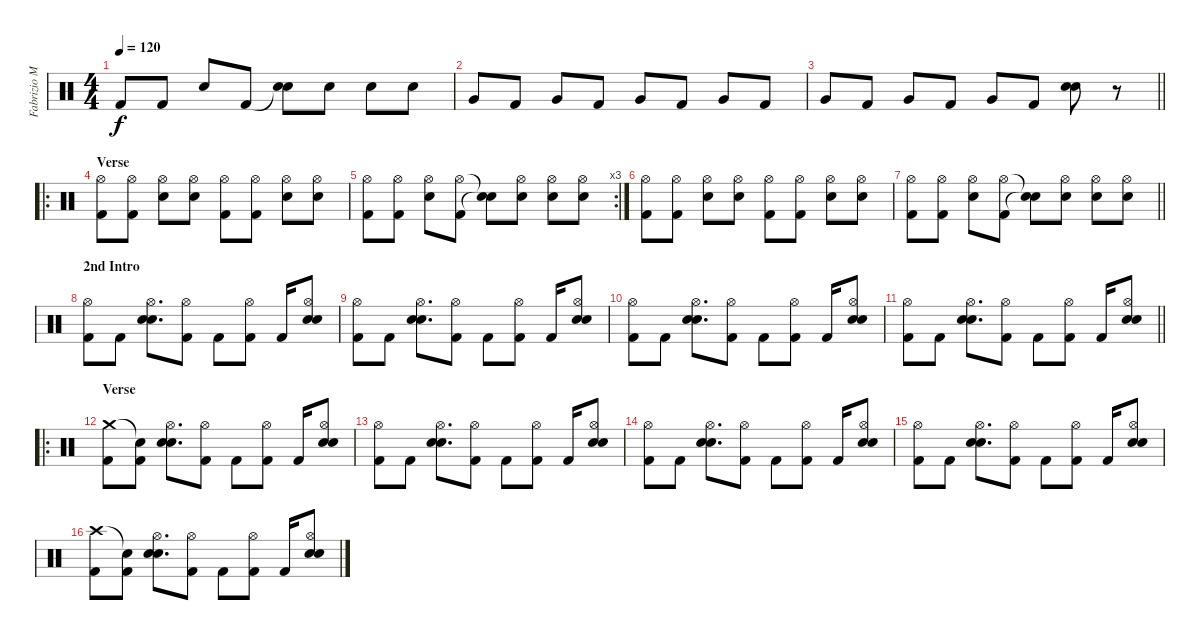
\track ("Fabrizio Moretti" "Fabrizio M") {instrument percussion}
\staff {score}
\articulation defaults
\ts (4 4)
\tempo 120
\clef neutral
\ks c "Kick (hit) 2".8{dy f} "Kick (hit) 2".8 "Electric Snare (hit)".8 "Kick (hit) 2".8
("Snare (hit)"{t} "Snare (hit)"{t}).8 "Electric Snare (hit)".8 "Electric Snare (hit)".8 "Electric Snare (hit)".8 |
"Very Low Tom (hit)".8 "Kick (hit) 2".8 "Very Low Tom (hit)".8 "Kick (hit) 2".8 "Very Low Tom (hit)".8 "Kick (hit) 2".8 "Very Low Tom (hit)".8 "Kick (hit) 2".8 |
\barLineRight lightlight "Very Low Tom (hit)".8 "Kick (hit) 2".8 "Very Low Tom (hit)".8 "Kick (hit) 2".8 "Very Low Tom (hit)".8 "Kick (hit) 2".8
("Electric Snare (hit)" "Electric Snare (hit)").8 r.8 |
\ro
\section ("" "Verse")
("Hi-Hat (open)" "Kick (hit) 2").8 ("Hi-Hat (open)" "Kick (hit) 2").8 ("Hi-Hat (open)" "Electric Snare (hit)").8 ("Hi-Hat (open)" "Electric Snare (hit)").8 ("Hi-Hat (open)" "Kick (hit) 2").8 ("Hi-Hat (open)" "Kick (hit) 2").8 ("Hi-Hat (open)" "Electric Snare (hit)").8 ("Hi-Hat (open)" "Electric Snare (hit)").8 |
\rc 3
("Hi-Hat (open)" "Kick (hit) 2").8 ("Hi-Hat (open)" "Kick (hit) 2").8 ("Hi-Hat (open)" "Electric Snare (hit)").8 ("Hi-Hat (open)" "Kick (hit) 2").8 ("Snare (hit)"{t} "Snare (hit)"{t}).8 ("Hi-Hat (open)" "Electric Snare (hit)").8 ("Hi-Hat (open)" "Electric Snare (hit)").8 ("Hi-Hat (open)" "Electric Snare (hit)").8 |
("Hi-Hat (open)" "Kick (hit) 2").8 ("Hi-Hat (open)" "Kick (hit) 2").8 ("Hi-Hat (open)" "Electric Snare (hit)").8 ("Hi-Hat (open)" "Electric Snare (hit)").8 ("Hi-Hat (open)" "Kick (hit) 2").8 ("Hi-Hat (open)" "Kick (hit) 2").8 ("Hi-Hat (open)" "Electric Snare (hit)").8 ("Hi-Hat (open)" "Electric Snare (hit)").8 |
\barLineRight lightlight
("Hi-Hat (open)" "Kick (hit) 2").8 ("Hi-Hat (open)" "Kick (hit) 2").8 ("Hi-Hat (open)" "Electric Snare (hit)").8 ("Hi-Hat (open)" "Kick (hit) 2").8 ("Snare (hit)"{t} "Snare (hit)"{t}).8 ("Hi-Hat (open)" "Electric Snare (hit)").8 ("Hi-Hat (open)" "Electric Snare (hit)").8 ("Hi-Hat (open)" "Electric Snare (hit)").8 |
\section ("" "2nd Intro")
("Hi-Hat (open)" "Kick (hit) 2").8 "Kick (hit) 2".8 ("Hand Clap (hit)" "Hi-Hat (open)" "Electric Snare (hit)").8{d} ("Hi-Hat (open)" "Kick (hit) 2").8 "Kick (hit) 2".8 ("Hi-Hat (open)" "Kick (hit) 2").8 "Kick (hit) 2".16 ("Hand Clap (hit)" "Hi-Hat (open)" "Electric Snare (hit)").8 |
("Hi-Hat (open)" "Kick (hit) 2").8 "Kick (hit) 2".8 ("Hand Clap (hit)" "Hi-Hat (open)" "Electric Snare (hit)").8{d} ("Hi-Hat (open)" "Kick (hit) 2").8 "Kick (hit) 2".8 ("Hi-Hat (open)" "Kick (hit) 2").8 "Kick (hit) 2".16 ("Hand Clap (hit)" "Hi-Hat (open)" "Electric Snare (hit)").8 |
("Hi-Hat (open)" "Kick (hit) 2").8 "Kick (hit) 2".8 ("Hand Clap (hit)" "Hi-Hat (open)" "Electric Snare (hit)").8{d} ("Hi-Hat (open)" "Kick (hit) 2").8 "Kick (hit) 2".8 ("Hi-Hat (open)" "Kick (hit) 2").8 "Kick (hit) 2".16 ("Hand Clap (hit)" "Hi-Hat (open)" "Electric Snare (hit)").8 |
\barLineRight lightlight
("Hi-Hat (open)" "Kick (hit) 2").8 "Kick (hit) 2".8 ("Hand Clap (hit)" "Hi-Hat (open)" "Electric Snare (hit)").8{d} ("Hi-Hat (open)" "Kick (hit) 2").8 "Kick (hit) 2".8 ("Hi-Hat (open)" "Kick (hit) 2").8 "Kick (hit) 2".16 ("Hand Clap (hit)" "Hi-Hat (open)" "Electric Snare (hit)").8 |
\ro
\section ("" "Verse")
("Crash medium (hit)" "Kick (hit) 2").8 ("Snare (hit)"{t} "Kick (hit) 2").8 ("Hand Clap (hit)" "Hi-Hat (open)" "Electric Snare (hit)").8{d} ("Hi-Hat (open)" "Kick (hit) 2").8 "Kick (hit) 2".8 ("Hi-Hat (open)" "Kick (hit) 2").8 "Kick (hit) 2".16 ("Hand Clap (hit)" "Hi-Hat (open)" "Electric Snare (hit)").8 |
("Hi-Hat (open)" "Kick (hit) 2").8 "Kick (hit) 2".8 ("Hand Clap (hit)" "Hi-Hat (open)" "Electric Snare (hit)").8{d} ("Hi-Hat (open)" "Kick (hit) 2").8 "Kick (hit) 2".8 ("Hi-Hat (open)" "Kick (hit) 2").8 "Kick (hit) 2".16 ("Hand Clap (hit)" "Hi-Hat (open)" "Electric Snare (hit)").8 |
("Hi-Hat (open)" "Kick (hit) 2").8 "Kick (hit) 2".8 ("Hand Clap (hit)" "Hi-Hat (open)" "Electric Snare (hit)").8{d} ("Hi-Hat (open)" "Kick (hit) 2").8 "Kick (hit) 2".8 ("Hi-Hat (open)" "Kick (hit) 2").8 "Kick (hit) 2".16 ("Hand Clap (hit)" "Hi-Hat (open)" "Electric Snare (hit)").8 |
("Hi-Hat (open)" "Kick (hit) 2").8 "Kick (hit) 2".8 ("Hand Clap (hit)" "Hi-Hat (open)" "Electric Snare (hit)").8{d} ("Hi-Hat (open)" "Kick (hit) 2").8 "Kick (hit) 2".8 ("Hi-Hat (open)" "Kick (hit) 2").8 "Kick (hit) 2".16 ("Hand Clap (hit)" "Hi-Hat (open)" "Electric Snare (hit)").8 |
("Crash high (hit)" "Kick (hit) 2").8 ("Snare (hit)"{t} "Kick (hit) 2").8 ("Hand Clap (hit)" "Hi-Hat (open)" "Electric Snare (hit)").8{d} ("Hi-Hat (open)" "Kick (hit) 2").8 "Kick (hit) 2".8 ("Hi-Hat (open)" "Kick (hit) 2").8 "Kick (hit) 2".16 ("Hand Clap (hit)" "Hi-Hat (open)" "Electric Snare (hit)").8
